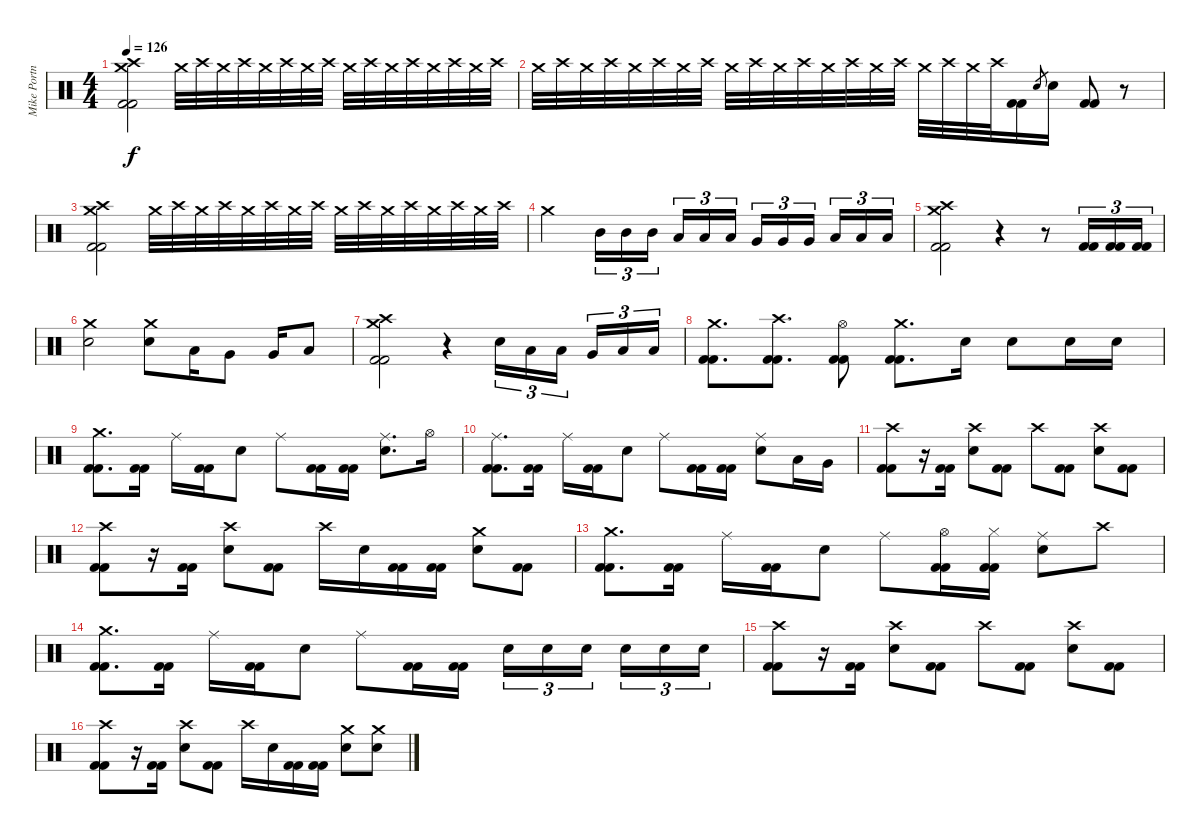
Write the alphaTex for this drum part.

\track ("Mike Portnoy" "Mike Portn") {instrument percussion}
\staff {score}
\articulation defaults
\ts (4 4)
\tempo 126
\clef neutral
\ks c
("Crash medium (hit)" "Crash high (hit)" "Kick (hit) 2" "Kick (hit) 2").2{dy f} "Crash medium (hit)".32{volume 0} "Crash high (hit)".32{volume 16} "Crash medium (hit)".32 "Crash high (hit)".32 "Crash medium (hit)".32 "Crash high (hit)".32 "Crash medium (hit)".32 "Crash high (hit)".32 "Crash medium (hit)".32 "Crash high (hit)".32 "Crash medium (hit)".32 "Crash high (hit)".32 "Crash medium (hit)".32 "Crash high (hit)".32 "Crash medium (hit)".32 "Crash high (hit)".32 |
"Crash medium (hit)".32 "Crash high (hit)".32 "Crash medium (hit)".32 "Crash high (hit)".32 "Crash medium (hit)".32 "Crash high (hit)".32 "Crash medium (hit)".32 "Crash high (hit)".32 "Crash medium (hit)".32 "Crash high (hit)".32 "Crash medium (hit)".32 "Crash high (hit)".32 "Crash medium (hit)".32 "Crash high (hit)".32 "Crash medium (hit)".32 "Crash high (hit)".32 "Crash medium (hit)".32 "Crash high (hit)".32 "Crash medium (hit)".32 "Crash high (hit)".32 ("Kick (hit) 2" "Kick (hit) 2").16{volume 16} "Electric Snare (hit)".8{gr} "Electric Snare (hit)".16 ("Kick (hit) 2" "Kick (hit) 2").8 r.8 |
("Crash medium (hit)" "Crash high (hit)" "Kick (hit) 2" "Kick (hit) 2").2 "Crash medium (hit)".32{volume 0} "Crash high (hit)".32{volume 16} "Crash medium (hit)".32 "Crash high (hit)".32 "Crash medium (hit)".32 "Crash high (hit)".32 "Crash medium (hit)".32 "Crash high (hit)".32 "Crash medium (hit)".32 "Crash high (hit)".32 "Crash medium (hit)".32 "Crash high (hit)".32 "Crash medium (hit)".32 "Crash high (hit)".32 "Crash medium (hit)".32 "Crash high (hit)".32 |
"Crash medium (hit)".2 "Mid Tom (hit)".16{tu (3 2)} "Mid Tom (hit)".16{tu (3 2)} "Mid Tom (hit)".16{tu (3 2) beam splitsecondary} "Low Tom (hit)".16{tu (3 2)} "Low Tom (hit)".16{tu (3 2)} "Low Tom (hit)".16{tu (3 2)} "Very Low Tom (hit)".16{tu (3 2)} "Very Low Tom (hit)".16{tu (3 2)} "Very Low Tom (hit)".16{tu (3 2) beam splitsecondary} "Low Floor Tom (hit)".16{tu (3 2)} "Low Floor Tom (hit)".16{tu (3 2)} "Low Floor Tom (hit)".16{tu (3 2)} |
("Crash medium (hit)" "Crash high (hit)" "Kick (hit) 2" "Kick (hit) 2").2 r.4 r.8 ("Kick (hit) 2" "Kick (hit) 2").16{tu (3 2)} ("Kick (hit) 2" "Kick (hit) 2").16{tu (3 2)} ("Kick (hit) 2" "Kick (hit) 2").16{tu (3 2)} |
("Crash medium (hit)" "Electric Snare (hit)").2 ("Crash medium (hit)" "Electric Snare (hit)").8 "Low Tom (hit)".16 "Very Low Tom (hit)".8 "Very Low Tom (hit)".16 "Low Floor Tom (hit)".8 |
("Crash medium (hit)" "Crash high (hit)" "Kick (hit) 2" "Kick (hit) 2").2 r.4 "Electric Snare (hit)".16{tu (3 2)} "Low Tom (hit)".16{tu (3 2)} "Low Tom (hit)".16{tu (3 2) beam splitsecondary} "Very Low Tom (hit)".16{tu (3 2)} "Low Floor Tom (hit)".16{tu (3 2)} "Low Floor Tom (hit)".16{tu (3 2)} |
("Crash medium (hit)" "Kick (hit) 2" "Kick (hit) 2").8{d} ("Crash high (hit)" "Kick (hit) 2" "Kick (hit) 2").8{d} ("Hi-Hat (open)" "Kick (hit) 2" "Kick (hit) 2").8 ("Crash medium (hit)" "Kick (hit) 2" "Kick (hit) 2").8{d} "Electric Snare (hit)".16 "Electric Snare (hit)".8 "Electric Snare (hit)".16 "Electric Snare (hit)".16 |
("Crash medium (hit)" "Kick (hit) 2" "Kick (hit) 2").8{d} ("Kick (hit) 2" "Kick (hit) 2").16 "Ride (middle)".16 ("Kick (hit) 2" "Kick (hit) 2").16 "Electric Snare (hit)".8 "Ride (middle)".8 ("Kick (hit) 2" "Kick (hit) 2").16 ("Kick (hit) 2" "Kick (hit) 2").16 ("Ride (middle)" "Electric Snare (hit)").8{d} "Hi-Hat (open)".16 |
("Ride (middle)" "Kick (hit) 2" "Kick (hit) 2").8{d} ("Kick (hit) 2" "Kick (hit) 2").16 "Ride (middle)".16 ("Kick (hit) 2" "Kick (hit) 2").16 "Electric Snare (hit)".8 "Ride (middle)".8 ("Kick (hit) 2" "Kick (hit) 2").16 ("Kick (hit) 2" "Kick (hit) 2").16 ("Ride (middle)" "Electric Snare (hit)").8 "Low Tom (hit)".16 "Very Low Tom (hit)".16 |
("Crash high (hit)" "Kick (hit) 2" "Kick (hit) 2").8 r.16 ("Kick (hit) 2" "Kick (hit) 2").16 ("Crash high (hit)" "Electric Snare (hit)").8 ("Kick (hit) 2" "Kick (hit) 2").8 "Crash high (hit)".8 ("Kick (hit) 2" "Kick (hit) 2").8 ("Crash high (hit)" "Electric Snare (hit)").8 ("Kick (hit) 2" "Kick (hit) 2").8 |
("Crash high (hit)" "Kick (hit) 2" "Kick (hit) 2").8 r.16 ("Kick (hit) 2" "Kick (hit) 2").16 ("Crash high (hit)" "Electric Snare (hit)").8 ("Kick (hit) 2" "Kick (hit) 2").8 "Crash high (hit)".16 "Electric Snare (hit)".16 ("Kick (hit) 2" "Kick (hit) 2").16 ("Kick (hit) 2" "Kick (hit) 2").16 ("Crash medium (hit)" "Electric Snare (hit)").8 ("Kick (hit) 2" "Kick (hit) 2").8 |
("Crash medium (hit)" "Kick (hit) 2" "Kick (hit) 2").8{d} ("Kick (hit) 2" "Kick (hit) 2").16 "Ride (middle)".16 ("Kick (hit) 2" "Kick (hit) 2").16 "Electric Snare (hit)".8 "Ride (middle)".8 ("Hi-Hat (open)" "Kick (hit) 2" "Kick (hit) 2").16 ("Hi-Hat (closed)" "Kick (hit) 2" "Kick (hit) 2").16 ("Ride (middle)" "Electric Snare (hit)").8 "Crash high (hit)".8 |
("Crash medium (hit)" "Kick (hit) 2" "Kick (hit) 2").8{d} ("Kick (hit) 2" "Kick (hit) 2").16 "Ride (middle)".16 ("Kick (hit) 2" "Kick (hit) 2").16 "Electric Snare (hit)".8 "Ride (middle)".8 ("Kick (hit) 2" "Kick (hit) 2").16 ("Kick (hit) 2" "Kick (hit) 2").16 "Electric Snare (hit)".16{tu (3 2)} "Electric Snare (hit)".16{tu (3 2)} "Electric Snare (hit)".16{tu (3 2) beam splitsecondary} "Electric Snare (hit)".16{tu (3 2)} "Electric Snare (hit)".16{tu (3 2)} "Electric Snare (hit)".16{tu (3 2)} |
("Crash high (hit)" "Kick (hit) 2" "Kick (hit) 2").8 r.16 ("Kick (hit) 2" "Kick (hit) 2").16 ("Crash high (hit)" "Electric Snare (hit)").8 ("Kick (hit) 2" "Kick (hit) 2").8 "Crash high (hit)".8 ("Kick (hit) 2" "Kick (hit) 2").8 ("Crash high (hit)" "Electric Snare (hit)").8 ("Kick (hit) 2" "Kick (hit) 2").8 |
("Crash high (hit)" "Kick (hit) 2" "Kick (hit) 2").8 r.16 ("Kick (hit) 2" "Kick (hit) 2").16 ("Crash high (hit)" "Electric Snare (hit)").8 ("Kick (hit) 2" "Kick (hit) 2").8 "Crash high (hit)".16 "Electric Snare (hit)".16 ("Kick (hit) 2" "Kick (hit) 2").16 ("Kick (hit) 2" "Kick (hit) 2").16 ("Crash medium (hit)" "Electric Snare (hit)").8 ("Crash medium (hit)" "Electric Snare (hit)").8
